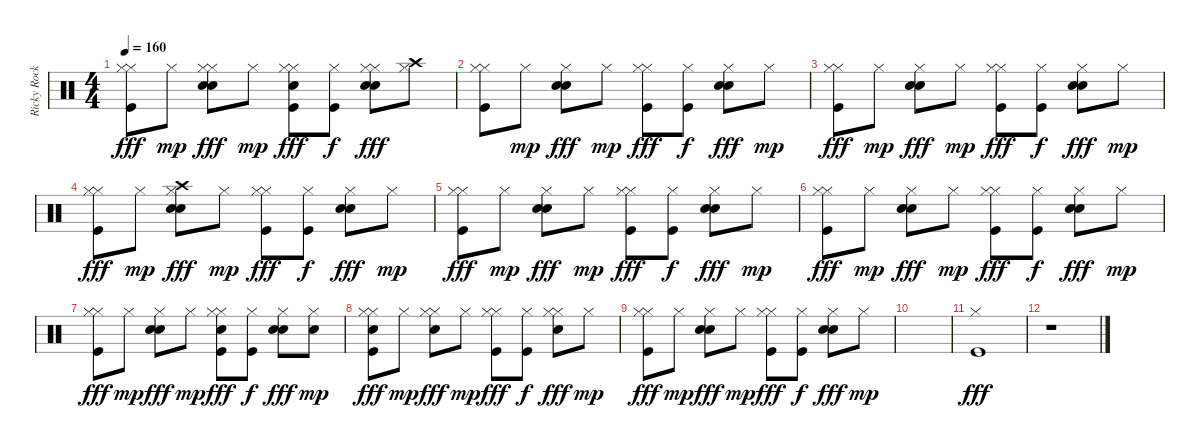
\track ("Ricky Rockett" "Ricky Rock") {instrument percussion}
\staff {score}
\articulation defaults
\ts (4 4)
\tempo 160
\clef neutral
\ks c
("Hi-Hat (closed)" "Kick (hit)" "Hi-Hat (closed)").8{dy fff} "Hi-Hat (closed)".8{dy mp} ("Snare (hit) 2" "Hi-Hat (closed)" "Hi-Hat (closed)" "Electric Snare (hit)").8{dy fff} "Hi-Hat (closed)".8{dy mp} ("Hi-Hat (closed)" "Kick (hit)" "Hi-Hat (closed)" "Electric Snare (hit)").8{dy fff} ("Hi-Hat (closed)" "Kick (hit)").8{dy f} ("Snare (hit) 2" "Hi-Hat (closed)" "Hi-Hat (closed)" "Electric Snare (hit)").8{dy fff} ("Hi-Hat (closed)" "Crash high (hit)").8 |
("Hi-Hat (closed)" "Kick (hit)" "Hi-Hat (closed)").8 "Hi-Hat (closed)".8{dy mp} ("Snare (hit) 2" "Hi-Hat (closed)" "Electric Snare (hit)").8{dy fff} "Hi-Hat (closed)".8{dy mp} ("Hi-Hat (closed)" "Kick (hit)" "Hi-Hat (closed)").8{dy fff} ("Hi-Hat (closed)" "Kick (hit)").8{dy f} ("Snare (hit) 2" "Hi-Hat (closed)" "Electric Snare (hit)").8{dy fff} "Hi-Hat (closed)".8{dy mp} |
("Hi-Hat (closed)" "Kick (hit)" "Hi-Hat (closed)").8{dy fff} "Hi-Hat (closed)".8{dy mp} ("Snare (hit) 2" "Hi-Hat (closed)" "Electric Snare (hit)").8{dy fff} "Hi-Hat (closed)".8{dy mp} ("Hi-Hat (closed)" "Kick (hit)" "Hi-Hat (closed)").8{dy fff} ("Hi-Hat (closed)" "Kick (hit)").8{dy f} ("Snare (hit) 2" "Hi-Hat (closed)" "Electric Snare (hit)").8{dy fff} "Hi-Hat (closed)".8{dy mp} |
("Hi-Hat (closed)" "Kick (hit)" "Hi-Hat (closed)").8{dy fff} "Hi-Hat (closed)".8{dy mp} ("Snare (hit) 2" "Hi-Hat (closed)" "Electric Snare (hit)" "Crash high (hit)").8{dy fff} "Hi-Hat (closed)".8{dy mp} ("Hi-Hat (closed)" "Kick (hit)" "Hi-Hat (closed)").8{dy fff} ("Hi-Hat (closed)" "Kick (hit)").8{dy f} ("Snare (hit) 2" "Hi-Hat (closed)" "Electric Snare (hit)").8{dy fff} "Hi-Hat (closed)".8{dy mp} |
("Hi-Hat (closed)" "Kick (hit)" "Hi-Hat (closed)").8{dy fff} "Hi-Hat (closed)".8{dy mp} ("Snare (hit) 2" "Hi-Hat (closed)" "Electric Snare (hit)").8{dy fff} "Hi-Hat (closed)".8{dy mp} ("Hi-Hat (closed)" "Kick (hit)" "Hi-Hat (closed)").8{dy fff} ("Hi-Hat (closed)" "Kick (hit)").8{dy f} ("Snare (hit) 2" "Hi-Hat (closed)" "Electric Snare (hit)").8{dy fff} "Hi-Hat (closed)".8{dy mp} |
("Hi-Hat (closed)" "Kick (hit)" "Hi-Hat (closed)").8{dy fff} "Hi-Hat (closed)".8{dy mp} ("Snare (hit) 2" "Hi-Hat (closed)" "Electric Snare (hit)").8{dy fff} "Hi-Hat (closed)".8{dy mp} ("Hi-Hat (closed)" "Kick (hit)" "Hi-Hat (closed)").8{dy fff} ("Hi-Hat (closed)" "Kick (hit)").8{dy f} ("Snare (hit) 2" "Hi-Hat (closed)" "Electric Snare (hit)").8{dy fff} "Hi-Hat (closed)".8{dy mp} |
("Hi-Hat (closed)" "Kick (hit)" "Hi-Hat (closed)").8{dy fff} "Hi-Hat (closed)".8{dy mp} ("Snare (hit) 2" "Hi-Hat (closed)" "Electric Snare (hit)").8{dy fff} "Hi-Hat (closed)".8{dy mp} ("Hi-Hat (closed)" "Kick (hit)" "Hi-Hat (closed)" "Electric Snare (hit)").8{dy fff} ("Hi-Hat (closed)" "Kick (hit)").8{dy f} ("Snare (hit) 2" "Hi-Hat (closed)" "Electric Snare (hit)").8{dy fff} ("Hi-Hat (closed)" "Electric Snare (hit)").8{dy mp} |
("Hi-Hat (closed)" "Kick (hit)" "Hi-Hat (closed)" "Electric Snare (hit)").8{dy fff} "Hi-Hat (closed)".8{dy mp} ("Snare (hit) 2" "Hi-Hat (closed)" "Hi-Hat (closed)").8{dy fff} "Hi-Hat (closed)".8{dy mp} ("Hi-Hat (closed)" "Kick (hit)" "Hi-Hat (closed)").8{dy fff} ("Hi-Hat (closed)" "Kick (hit)").8{dy f} ("Snare (hit) 2" "Hi-Hat (closed)" "Hi-Hat (closed)").8{dy fff} "Hi-Hat (closed)".8{dy mp} |
("Hi-Hat (closed)" "Kick (hit)" "Hi-Hat (closed)").8{dy fff} "Hi-Hat (closed)".8{dy mp} ("Snare (hit) 2" "Hi-Hat (closed)" "Electric Snare (hit)").8{dy fff} "Hi-Hat (closed)".8{dy mp} ("Hi-Hat (closed)" "Kick (hit)" "Hi-Hat (closed)").8{dy fff} ("Hi-Hat (closed)" "Kick (hit)").8{dy f} ("Snare (hit) 2" "Hi-Hat (closed)" "Electric Snare (hit)").8{dy fff} "Hi-Hat (closed)".8{dy mp} |
|
("Hi-Hat (closed)" "Kick (hit)").1{dy fff} |
r.1
